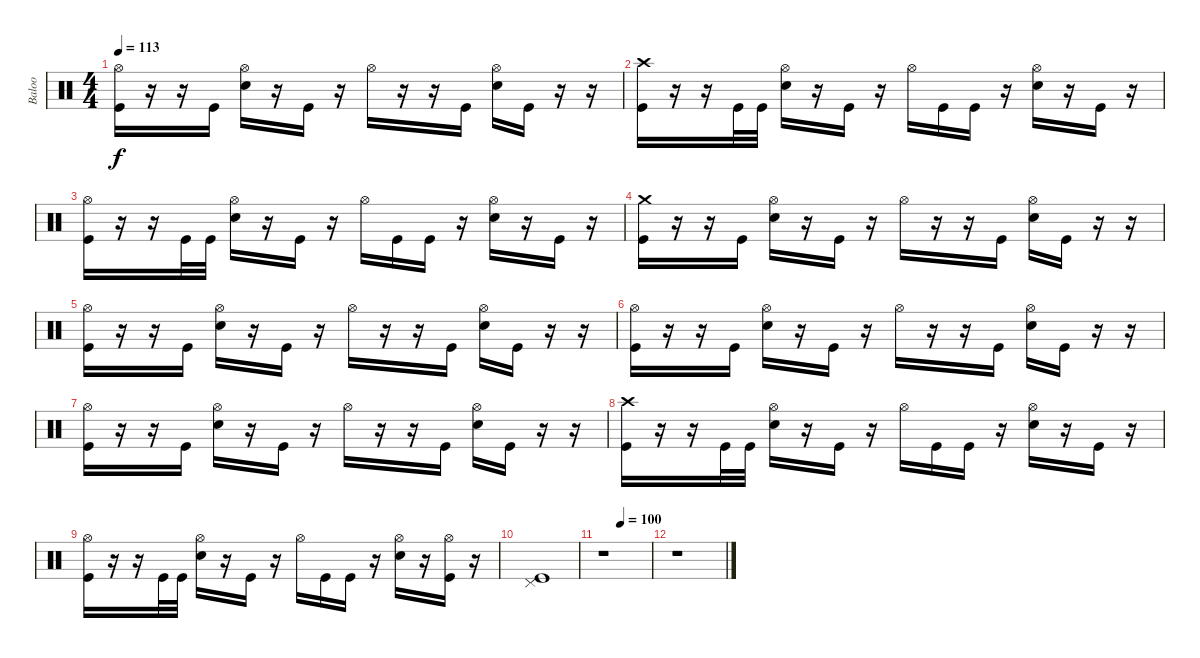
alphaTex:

\track ("Baloo" "Baloo") {instrument percussion}
\staff {score}
\articulation defaults
\ts (4 4)
\tempo 113
\clef neutral
\ks c
("Hi-Hat (open)" "Kick (hit)").16{dy f} r.16 r.16 "Kick (hit)".16 ("Hi-Hat (open)" "Electric Snare (hit)").16 r.16 "Kick (hit)".16 r.16 "Hi-Hat (open)".16 r.16 r.16 "Kick (hit)".16 ("Hi-Hat (open)" "Electric Snare (hit)").16 "Kick (hit)".16 r.16 r.16 |
("Crash high (hit)" "Kick (hit)").16 r.16 r.16 "Kick (hit)".32 "Kick (hit)".32 ("Hi-Hat (open)" "Electric Snare (hit)").16 r.16 "Kick (hit)".16 r.16 "Hi-Hat (open)".16 "Kick (hit)".16 "Kick (hit)".16 r.16 ("Hi-Hat (open)" "Electric Snare (hit)").16 r.16 "Kick (hit)".16 r.16 |
("Hi-Hat (open)" "Kick (hit)").16 r.16 r.16 "Kick (hit)".32 "Kick (hit)".32 ("Hi-Hat (open)" "Electric Snare (hit)").16 r.16 "Kick (hit)".16 r.16 "Hi-Hat (open)".16 "Kick (hit)".16 "Kick (hit)".16 r.16 ("Hi-Hat (open)" "Electric Snare (hit)").16 r.16 "Kick (hit)".16 r.16 |
("Crash medium (hit)" "Kick (hit)").16 r.16 r.16 "Kick (hit)".16 ("Hi-Hat (open)" "Electric Snare (hit)").16 r.16 "Kick (hit)".16 r.16 "Hi-Hat (open)".16 r.16 r.16 "Kick (hit)".16 ("Hi-Hat (open)" "Electric Snare (hit)").16 "Kick (hit)".16 r.16 r.16 |
("Hi-Hat (open)" "Kick (hit)").16 r.16 r.16 "Kick (hit)".16 ("Hi-Hat (open)" "Electric Snare (hit)").16 r.16 "Kick (hit)".16 r.16 "Hi-Hat (open)".16 r.16 r.16 "Kick (hit)".16 ("Hi-Hat (open)" "Electric Snare (hit)").16 "Kick (hit)".16 r.16 r.16 |
("Hi-Hat (open)" "Kick (hit)").16 r.16 r.16 "Kick (hit)".16 ("Hi-Hat (open)" "Electric Snare (hit)").16 r.16 "Kick (hit)".16 r.16 "Hi-Hat (open)".16 r.16 r.16 "Kick (hit)".16 ("Hi-Hat (open)" "Electric Snare (hit)").16 "Kick (hit)".16 r.16 r.16 |
("Hi-Hat (open)" "Kick (hit)").16 r.16 r.16 "Kick (hit)".16 ("Hi-Hat (open)" "Electric Snare (hit)").16 r.16 "Kick (hit)".16 r.16 "Hi-Hat (open)".16 r.16 r.16 "Kick (hit)".16 ("Hi-Hat (open)" "Electric Snare (hit)").16 "Kick (hit)".16 r.16 r.16 |
("Crash high (hit)" "Kick (hit)").16 r.16 r.16 "Kick (hit)".32 "Kick (hit)".32 ("Hi-Hat (open)" "Electric Snare (hit)").16 r.16 "Kick (hit)".16 r.16 "Hi-Hat (open)".16 "Kick (hit)".16 "Kick (hit)".16 r.16 ("Hi-Hat (open)" "Electric Snare (hit)").16 r.16 "Kick (hit)".16 r.16 |
("Hi-Hat (open)" "Kick (hit)").16 r.16 r.16 "Kick (hit)".32 "Kick (hit)".32 ("Hi-Hat (open)" "Electric Snare (hit)").16 r.16 "Kick (hit)".16 r.16 "Hi-Hat (open)".16 "Kick (hit)".16 "Kick (hit)".16 r.16 ("Hi-Hat (open)" "Electric Snare (hit)").16 r.16 ("Hi-Hat (open)" "Kick (hit)").16 r.16 |
("Pedal Hi-Hat (hit)" "Kick (hit)").1 |
\tempo (100 0.375)
r.1 |
r.1
